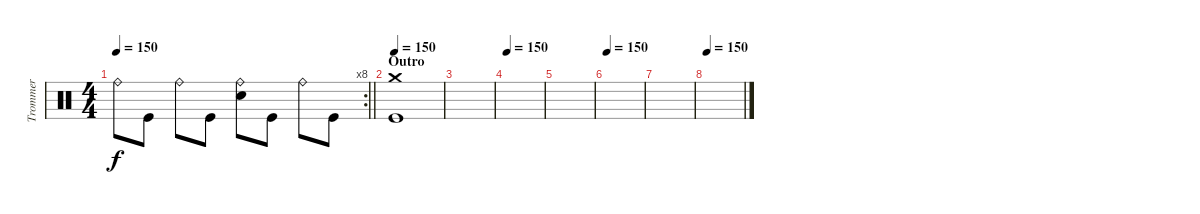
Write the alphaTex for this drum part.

\track ("Trommer" "Trommer") {instrument percussion}
\staff {score}
\articulation defaults
\rc 8
\ts (4 4)
\tempo 150
\clef neutral
\barLineRight lightlight
\ks c "Ride (bell)".8{dy f} "Kick (hit)".8 "Ride (bell)".8 "Kick (hit)".8
("Ride (bell)" "Snare (hit) 2").8 "Kick (hit)".8 "Ride (bell)".8 "Kick (hit)".8 |
\section ("" "Outro")
\tempo 150
("Crash medium (hit)" "Kick (hit)").1 |
|
\tempo 150
|
|
\tempo 150
|
|
\tempo 150
